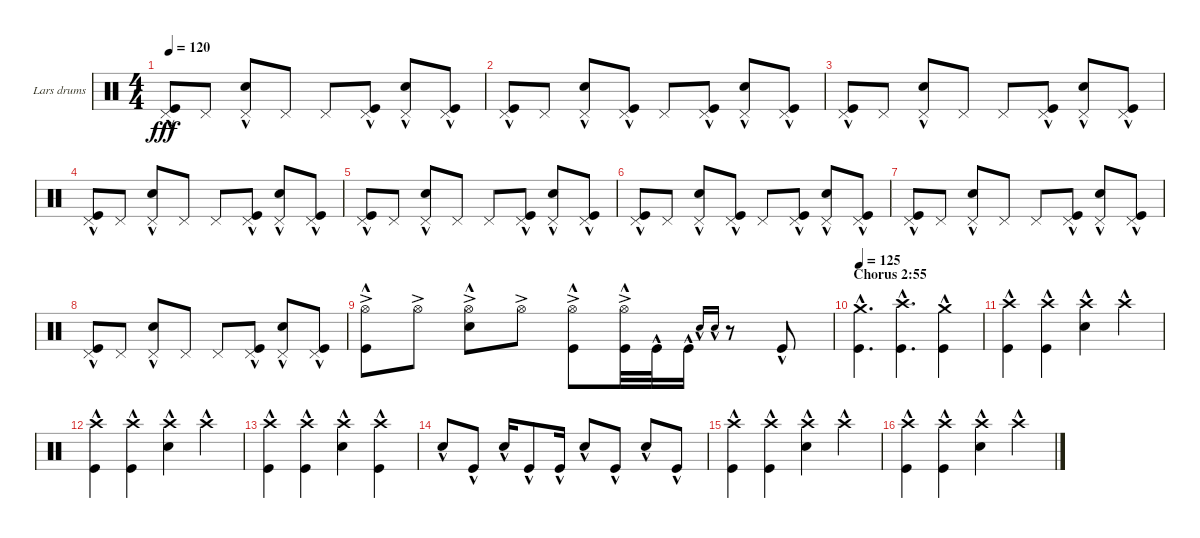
\defaultSystemsLayout 4
\bracketExtendMode groupsimilarinstruments
\firstSystemTrackNameOrientation horizontal
\otherSystemsTrackNameOrientation horizontal
\track ("Lars drums" "Lars drums") {instrument percussion}
\staff {score}
\articulation defaults
\ts (4 4)
\tempo 120
\clef neutral
\ks c
("Kick (hit)"{hac} "Pedal Hi-Hat (hit)").8{dy fff} "Pedal Hi-Hat (hit)".8 ("Pedal Hi-Hat (hit)" "Snare (hit) 2"{hac}).8 "Pedal Hi-Hat (hit)".8 "Pedal Hi-Hat (hit)".8 ("Pedal Hi-Hat (hit)" "Kick (hit)"{hac}).8 ("Pedal Hi-Hat (hit)" "Snare (hit) 2"{hac}).8 ("Pedal Hi-Hat (hit)" "Kick (hit)"{hac}).8 |
("Kick (hit)"{hac} "Pedal Hi-Hat (hit)").8 "Pedal Hi-Hat (hit)".8 ("Pedal Hi-Hat (hit)" "Snare (hit) 2"{hac}).8 ("Pedal Hi-Hat (hit)" "Kick (hit)"{hac}).8 "Pedal Hi-Hat (hit)".8 ("Pedal Hi-Hat (hit)" "Kick (hit)"{hac}).8 ("Pedal Hi-Hat (hit)" "Snare (hit) 2"{hac}).8 ("Pedal Hi-Hat (hit)" "Kick (hit)"{hac}).8 |
("Kick (hit)"{hac} "Pedal Hi-Hat (hit)").8 "Pedal Hi-Hat (hit)".8 ("Pedal Hi-Hat (hit)" "Snare (hit) 2"{hac}).8 "Pedal Hi-Hat (hit)".8 "Pedal Hi-Hat (hit)".8 ("Pedal Hi-Hat (hit)" "Kick (hit)"{hac}).8 ("Pedal Hi-Hat (hit)" "Snare (hit) 2"{hac}).8 ("Pedal Hi-Hat (hit)" "Kick (hit)"{hac}).8 |
("Kick (hit)"{hac} "Pedal Hi-Hat (hit)").8 "Pedal Hi-Hat (hit)".8 ("Pedal Hi-Hat (hit)" "Snare (hit) 2"{hac}).8 "Pedal Hi-Hat (hit)".8 "Pedal Hi-Hat (hit)".8 ("Pedal Hi-Hat (hit)" "Kick (hit)"{hac}).8 ("Pedal Hi-Hat (hit)" "Snare (hit) 2"{hac}).8 ("Pedal Hi-Hat (hit)" "Kick (hit)"{hac}).8 |
("Kick (hit)"{hac} "Pedal Hi-Hat (hit)").8 "Pedal Hi-Hat (hit)".8 ("Pedal Hi-Hat (hit)" "Snare (hit) 2"{hac}).8 "Pedal Hi-Hat (hit)".8 "Pedal Hi-Hat (hit)".8 ("Pedal Hi-Hat (hit)" "Kick (hit)"{hac}).8 ("Pedal Hi-Hat (hit)" "Snare (hit) 2"{hac}).8 ("Kick (hit)"{hac} "Pedal Hi-Hat (hit)").8 |
("Kick (hit)"{hac} "Pedal Hi-Hat (hit)").8 "Pedal Hi-Hat (hit)".8 ("Pedal Hi-Hat (hit)" "Snare (hit) 2"{hac}).8 ("Pedal Hi-Hat (hit)" "Kick (hit)"{hac}).8 "Pedal Hi-Hat (hit)".8 ("Pedal Hi-Hat (hit)" "Kick (hit)"{hac}).8 ("Pedal Hi-Hat (hit)" "Snare (hit) 2"{hac}).8 ("Pedal Hi-Hat (hit)" "Kick (hit)"{hac}).8 |
("Kick (hit)"{hac} "Pedal Hi-Hat (hit)").8 "Pedal Hi-Hat (hit)".8 ("Pedal Hi-Hat (hit)" "Snare (hit) 2"{hac}).8 "Pedal Hi-Hat (hit)".8 "Pedal Hi-Hat (hit)".8 ("Pedal Hi-Hat (hit)" "Kick (hit)"{hac}).8 ("Pedal Hi-Hat (hit)" "Snare (hit) 2"{hac}).8 ("Pedal Hi-Hat (hit)" "Kick (hit)"{hac}).8 |
("Kick (hit)"{hac} "Pedal Hi-Hat (hit)").8 "Pedal Hi-Hat (hit)".8 ("Pedal Hi-Hat (hit)" "Snare (hit) 2"{hac}).8 "Pedal Hi-Hat (hit)".8 "Pedal Hi-Hat (hit)".8 ("Pedal Hi-Hat (hit)" "Kick (hit)"{hac}).8 ("Pedal Hi-Hat (hit)" "Snare (hit) 2"{hac}).8 ("Pedal Hi-Hat (hit)" "Kick (hit)"{hac}).8 |
("Hi-Hat (open)"{ac} "Kick (hit)"{hac}).8 "Hi-Hat (open)"{ac}.8 ("Hi-Hat (open)"{ac} "Snare (hit) 2"{hac}).8 "Hi-Hat (open)"{ac}.8 ("Hi-Hat (open)"{ac} "Kick (hit)"{hac}).8 ("Hi-Hat (open)"{ac} "Kick (hit)"{hac}).32 "Kick (hit)"{hac}.32 "Kick (hit)"{hac}.16 "Snare (hit) 2"{hac}.16{gr onbeat} "Snare (hit) 2"{hac}.16{gr onbeat} r.8 "Kick (hit)"{hac}.8 |
\section ("" "Chorus 2:55")
\tempo 125
("Crash medium (hit)"{hac} "Kick (hit)"{hac}).4{d} ("Crash high (hit)"{hac} "Kick (hit)"{hac}).4{d} ("Crash medium (hit)"{hac} "Kick (hit)"{hac}).4 |
("Crash high (hit)"{hac} "Kick (hit)"{hac}).4 ("Crash high (hit)"{hac} "Kick (hit)"{hac}).4 ("Crash high (hit)"{hac} "Snare (hit) 2"{hac}).4 "Crash high (hit)"{hac}.4 |
("Crash high (hit)"{hac} "Kick (hit)"{hac}).4 ("Crash high (hit)"{hac} "Kick (hit)"{hac}).4 ("Crash high (hit)"{hac} "Snare (hit) 2"{hac}).4 "Crash high (hit)"{hac}.4 |
("Crash high (hit)"{hac} "Kick (hit)"{hac}).4 ("Crash high (hit)"{hac} "Kick (hit)"{hac}).4 ("Crash high (hit)"{hac} "Snare (hit) 2"{hac}).4 ("Crash high (hit)"{hac} "Kick (hit)"{hac}).4 |
"Snare (hit) 2"{hac}.8 "Kick (hit)"{hac}.8 "Snare (hit) 2"{hac}.16 "Kick (hit)"{hac}.8 "Kick (hit)"{hac}.16 "Snare (hit) 2"{hac}.8 "Kick (hit)"{hac}.8 "Snare (hit) 2"{hac}.8 "Kick (hit)"{hac}.8 |
("Crash high (hit)"{hac} "Kick (hit)"{hac}).4 ("Crash high (hit)"{hac} "Kick (hit)"{hac}).4 ("Crash high (hit)"{hac} "Snare (hit) 2"{hac}).4 "Crash high (hit)"{hac}.4 |
("Crash high (hit)"{hac} "Kick (hit)"{hac}).4 ("Crash high (hit)"{hac} "Kick (hit)"{hac}).4 ("Crash high (hit)"{hac} "Snare (hit) 2"{hac}).4 "Crash high (hit)"{hac}.4
